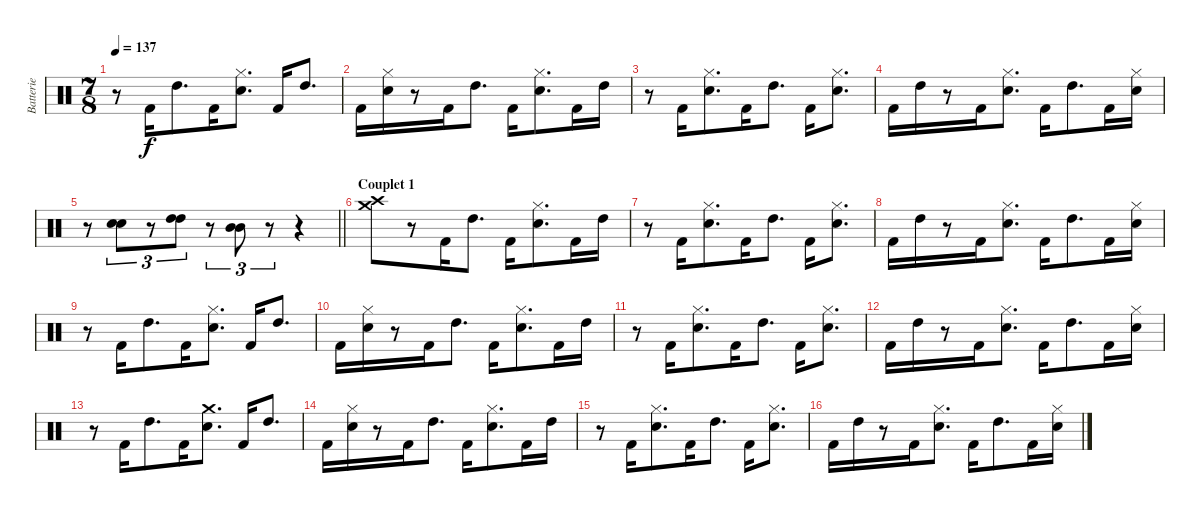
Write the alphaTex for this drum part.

\track ("Batterie" "Batterie") {instrument percussion}
\staff {score}
\articulation defaults
\ts (7 8)
\tempo 137
\clef neutral
\ks c
r.8{dy f} "Kick (hit) 2".16 "High Tom (hit)".8{d} "Kick (hit) 2".16 ("Snare (hit) 2" "Hi-Hat (closed)").8{d} "Kick (hit) 2".16 "High Tom (hit)".8{d} |
"Kick (hit) 2".16 ("Snare (hit) 2" "Hi-Hat (closed)").16 r.8 "Kick (hit) 2".16 "High Tom (hit)".8{d} "Kick (hit) 2".16 ("Snare (hit) 2" "Hi-Hat (closed)").8{d} "Kick (hit) 2".16 "High Tom (hit)".16 |
r.8 "Kick (hit) 2".16 ("Snare (hit) 2" "Hi-Hat (closed)").8{d} "Kick (hit) 2".16 "High Tom (hit)".8{d} "Kick (hit) 2".16 ("Snare (hit) 2" "Hi-Hat (closed)").8{d} |
"Kick (hit) 2".16 "High Tom (hit)".16 r.8 "Kick (hit) 2".16 ("Snare (hit) 2" "Hi-Hat (closed)").8{d} "Kick (hit) 2".16 "High Tom (hit)".8{d} "Kick (hit) 2".16 ("Snare (hit) 2" "Hi-Hat (closed)").16 |
\barLineRight lightlight
r.8 ("Snare (hit) 2" "Snare (hit) 2").8{tu (3 2)} r.8{tu (3 2)} ("High Tom (hit)" "High Tom (hit)").8{tu (3 2)} r.8{tu (3 2)} ("Mid Tom (hit)" "Mid Tom (hit)").8{tu (3 2)} r.8{tu (3 2)} r.4 |
\section ("" "Couplet 1")
("Crash high (hit)" "Crash medium (hit)").8 r.8 "Kick (hit) 2".16 "High Tom (hit)".8{d} "Kick (hit) 2".16 ("Snare (hit) 2" "Hi-Hat (closed)").8{d} "Kick (hit) 2".16 "High Tom (hit)".16 |
r.8 "Kick (hit) 2".16 ("Snare (hit) 2" "Hi-Hat (closed)").8{d} "Kick (hit) 2".16 "High Tom (hit)".8{d} "Kick (hit) 2".16 ("Snare (hit) 2" "Hi-Hat (closed)").8{d} |
"Kick (hit) 2".16 "High Tom (hit)".16 r.8 "Kick (hit) 2".16 ("Snare (hit) 2" "Hi-Hat (closed)").8{d} "Kick (hit) 2".16 "High Tom (hit)".8{d} "Kick (hit) 2".16 ("Snare (hit) 2" "Hi-Hat (closed)").16 |
r.8 "Kick (hit) 2".16 "High Tom (hit)".8{d} "Kick (hit) 2".16 ("Snare (hit) 2" "Hi-Hat (closed)").8{d} "Kick (hit) 2".16 "High Tom (hit)".8{d} |
"Kick (hit) 2".16 ("Snare (hit) 2" "Hi-Hat (closed)").16 r.8 "Kick (hit) 2".16 "High Tom (hit)".8{d} "Kick (hit) 2".16 ("Snare (hit) 2" "Hi-Hat (closed)").8{d} "Kick (hit) 2".16 "High Tom (hit)".16 |
r.8 "Kick (hit) 2".16 ("Snare (hit) 2" "Hi-Hat (closed)").8{d} "Kick (hit) 2".16 "High Tom (hit)".8{d} "Kick (hit) 2".16 ("Snare (hit) 2" "Hi-Hat (closed)").8{d} |
"Kick (hit) 2".16 "High Tom (hit)".16 r.8 "Kick (hit) 2".16 ("Snare (hit) 2" "Hi-Hat (closed)").8{d} "Kick (hit) 2".16 "High Tom (hit)".8{d} "Kick (hit) 2".16 ("Snare (hit) 2" "Hi-Hat (closed)").16 |
r.8 "Kick (hit) 2".16 "High Tom (hit)".8{d} "Kick (hit) 2".16 ("Snare (hit) 2" "Crash medium (hit)").8{d} "Kick (hit) 2".16 "High Tom (hit)".8{d} |
"Kick (hit) 2".16 ("Snare (hit) 2" "Hi-Hat (closed)").16 r.8 "Kick (hit) 2".16 "High Tom (hit)".8{d} "Kick (hit) 2".16 ("Snare (hit) 2" "Hi-Hat (closed)").8{d} "Kick (hit) 2".16 "High Tom (hit)".16 |
r.8 "Kick (hit) 2".16 ("Snare (hit) 2" "Hi-Hat (closed)").8{d} "Kick (hit) 2".16 "High Tom (hit)".8{d} "Kick (hit) 2".16 ("Snare (hit) 2" "Hi-Hat (closed)").8{d} |
"Kick (hit) 2".16 "High Tom (hit)".16 r.8 "Kick (hit) 2".16 ("Snare (hit) 2" "Hi-Hat (closed)").8{d} "Kick (hit) 2".16 "High Tom (hit)".8{d} "Kick (hit) 2".16 ("Snare (hit) 2" "Hi-Hat (closed)").16
